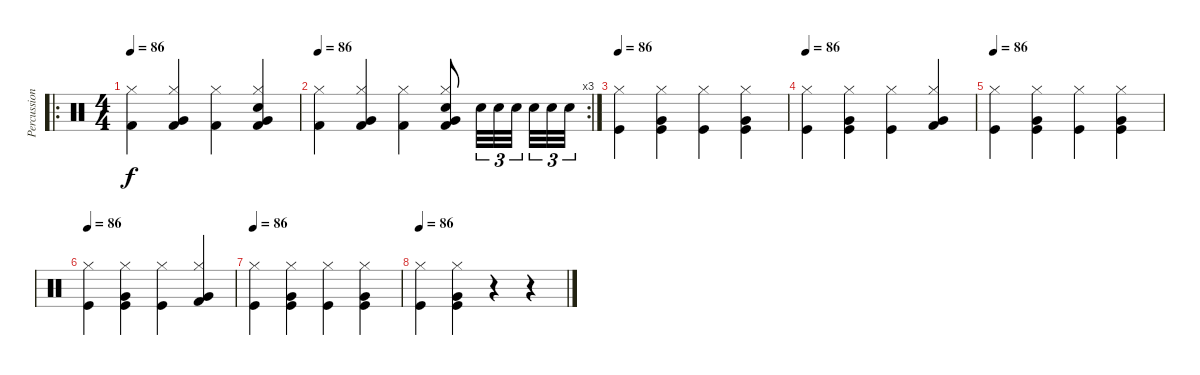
\track ("Percussions" "Percussion") {instrument percussion}
\staff {score}
\articulation defaults
\ro
\ts (4 4)
\tempo 86
\clef neutral
\ks c
("Kick (hit) 2" "Hi-Hat (closed)").4{dy f} ("Kick (hit) 2" "Very Low Tom (hit)" "Hi-Hat (closed)").4 ("Kick (hit) 2" "Hi-Hat (closed)").4 ("Kick (hit) 2" "Very Low Tom (hit)" "Hi-Hat (closed)" "Snare (hit) 2").4 |
\rc 3
\tempo 86
("Kick (hit) 2" "Hi-Hat (closed)").4 ("Kick (hit) 2" "Very Low Tom (hit)" "Hi-Hat (closed)").4 ("Kick (hit) 2" "Hi-Hat (closed)").4 ("Kick (hit) 2" "Very Low Tom (hit)" "Hi-Hat (closed)" "Snare (hit) 2").8 "Electric Snare (hit)".32{tu (3 2)} "Electric Snare (hit)".32{tu (3 2)} "Electric Snare (hit)".32{tu (3 2)} "Electric Snare (hit)".32{tu (3 2)} "Electric Snare (hit)".32{tu (3 2)} "Electric Snare (hit)".32{tu (3 2)} |
\tempo 86
("Kick (hit)" "Hi-Hat (closed)").4 ("Kick (hit)" "Very Low Tom (hit)" "Hi-Hat (closed)").4 ("Kick (hit)" "Hi-Hat (closed)").4 ("Kick (hit)" "Very Low Tom (hit)" "Hi-Hat (closed)").4 |
\tempo 86
("Kick (hit)" "Hi-Hat (closed)").4 ("Kick (hit)" "Very Low Tom (hit)" "Hi-Hat (closed)").4 ("Kick (hit)" "Hi-Hat (closed)").4 ("Kick (hit) 2" "Very Low Tom (hit)" "Hi-Hat (closed)").4 |
\tempo 86
("Kick (hit)" "Hi-Hat (closed)").4 ("Kick (hit)" "Very Low Tom (hit)" "Hi-Hat (closed)").4 ("Kick (hit)" "Hi-Hat (closed)").4 ("Kick (hit)" "Very Low Tom (hit)" "Hi-Hat (closed)").4 |
\tempo 86
("Kick (hit)" "Hi-Hat (closed)").4 ("Kick (hit)" "Very Low Tom (hit)" "Hi-Hat (closed)").4 ("Kick (hit)" "Hi-Hat (closed)").4 ("Kick (hit) 2" "Very Low Tom (hit)" "Hi-Hat (closed)").4 |
\tempo 86
("Kick (hit)" "Hi-Hat (closed)").4 ("Kick (hit)" "Very Low Tom (hit)" "Hi-Hat (closed)").4 ("Kick (hit)" "Hi-Hat (closed)").4 ("Kick (hit)" "Very Low Tom (hit)" "Hi-Hat (closed)").4 |
\tempo 86
("Kick (hit)" "Hi-Hat (closed)").4 ("Kick (hit)" "Very Low Tom (hit)" "Hi-Hat (closed)").4 r.4 r.4
